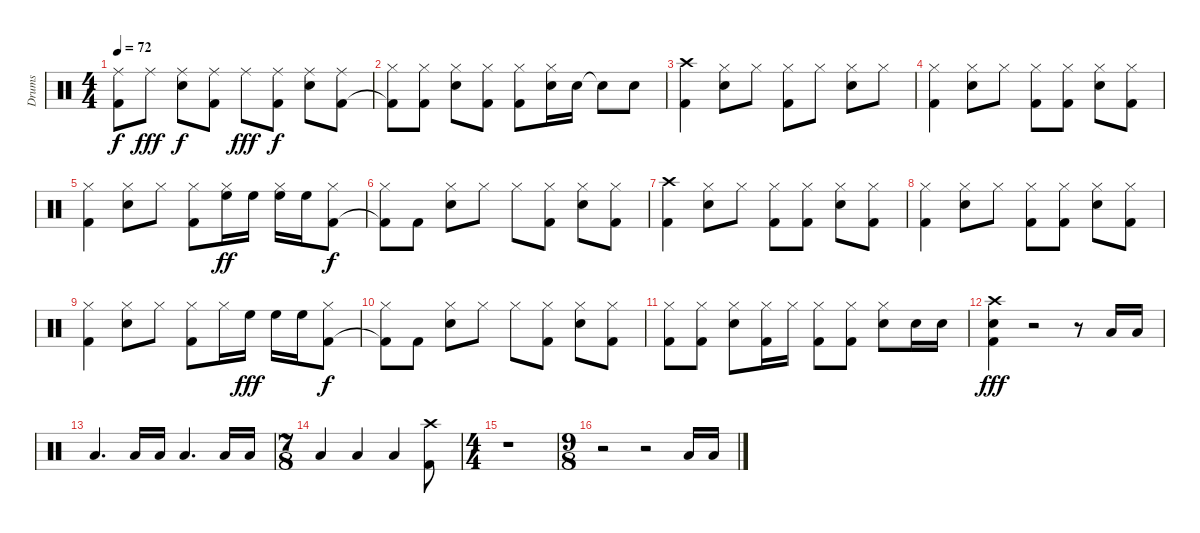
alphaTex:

\track ("Drums" "Drums") {instrument percussion}
\staff {score}
\articulation defaults
\ts (4 4)
\tempo 72
\clef neutral
\ks c
("Ride (middle)" "Kick (hit) 2").8{dy f} "Ride (middle)".8{dy fff} ("Ride (middle)" "Snare (hit) 2").8{dy f} ("Ride (middle)" "Kick (hit) 2").8 "Ride (middle)".8{dy fff} ("Ride (middle)" "Kick (hit) 2").8{dy f} ("Ride (middle)" "Snare (hit) 2").8 ("Ride (middle)" "Kick (hit) 2").8 |
("Hi-Hat (closed)" "Kick (hit) 2"{t}).8 ("Hi-Hat (closed)" "Kick (hit) 2").8 ("Hi-Hat (closed)" "Snare (hit) 2").8 ("Hi-Hat (closed)" "Kick (hit) 2").8 ("Hi-Hat (closed)" "Kick (hit) 2").8 ("Hi-Hat (closed)" "Snare (hit) 2").16 "Snare (hit) 2".16 "Snare (hit) 2"{t}.8 "Snare (hit) 2".8 |
("Crash high (hit)" "Kick (hit) 2").4 ("Hi-Hat (closed)" "Snare (hit) 2").8 "Hi-Hat (closed)".8 ("Hi-Hat (closed)" "Kick (hit) 2").8 "Hi-Hat (closed)".8 ("Hi-Hat (closed)" "Snare (hit) 2").8 "Hi-Hat (closed)".8 |
("Hi-Hat (closed)" "Kick (hit) 2").4 ("Hi-Hat (closed)" "Snare (hit) 2").8 "Hi-Hat (closed)".8 ("Hi-Hat (closed)" "Kick (hit) 2").8 ("Hi-Hat (closed)" "Kick (hit) 2").8 ("Hi-Hat (closed)" "Snare (hit) 2").8 ("Hi-Hat (closed)" "Kick (hit) 2").8 |
("Hi-Hat (closed)" "Kick (hit) 2").4 ("Hi-Hat (closed)" "Snare (hit) 2").8 "Hi-Hat (closed)".8 ("Hi-Hat (closed)" "Kick (hit) 2").8 ("Hi-Hat (closed)" "High Floor Tom (hit)").16{dy ff} "High Floor Tom (hit)".16 ("Hi-Hat (closed)" "High Floor Tom (hit)").16 "High Floor Tom (hit)".16 ("Hi-Hat (closed)" "Kick (hit) 2").8{dy f} |
("Hi-Hat (closed)" "Kick (hit) 2"{t}).8 "Kick (hit) 2".8 ("Hi-Hat (closed)" "Snare (hit) 2").8 "Hi-Hat (closed)".8 "Hi-Hat (closed)".8 ("Hi-Hat (closed)" "Kick (hit) 2").8 ("Hi-Hat (closed)" "Snare (hit) 2").8 ("Hi-Hat (closed)" "Kick (hit) 2").8 |
("Crash high (hit)" "Kick (hit) 2").4 ("Hi-Hat (closed)" "Snare (hit) 2").8 "Hi-Hat (closed)".8 ("Hi-Hat (closed)" "Kick (hit) 2").8 ("Hi-Hat (closed)" "Kick (hit) 2").8 ("Hi-Hat (closed)" "Snare (hit) 2").8 ("Hi-Hat (closed)" "Kick (hit) 2").8 |
("Hi-Hat (closed)" "Kick (hit) 2").4 ("Hi-Hat (closed)" "Snare (hit) 2").8 "Hi-Hat (closed)".8 ("Hi-Hat (closed)" "Kick (hit) 2").8 ("Hi-Hat (closed)" "Kick (hit) 2").8 ("Hi-Hat (closed)" "Snare (hit) 2").8 ("Hi-Hat (closed)" "Kick (hit) 2").8 |
("Hi-Hat (closed)" "Kick (hit) 2").4 ("Hi-Hat (closed)" "Snare (hit) 2").8 "Hi-Hat (closed)".8 ("Hi-Hat (closed)" "Kick (hit) 2").8 "Hi-Hat (closed)".16 "High Floor Tom (hit)".16{dy fff} "High Floor Tom (hit)".16 "High Floor Tom (hit)".16 ("Hi-Hat (closed)" "Kick (hit) 2").8{dy f} |
("Hi-Hat (closed)" "Kick (hit) 2"{t}).8 "Kick (hit) 2".8 ("Hi-Hat (closed)" "Snare (hit) 2").8 "Hi-Hat (closed)".8 "Hi-Hat (closed)".8 ("Hi-Hat (closed)" "Kick (hit) 2").8 ("Hi-Hat (closed)" "Snare (hit) 2").8 ("Hi-Hat (closed)" "Kick (hit) 2").8 |
("Hi-Hat (closed)" "Kick (hit) 2").8 ("Hi-Hat (closed)" "Kick (hit) 2").8 ("Hi-Hat (closed)" "Snare (hit) 2").8 ("Hi-Hat (closed)" "Kick (hit) 2").16 "Hi-Hat (closed)".16 ("Hi-Hat (closed)" "Kick (hit) 2").8 ("Hi-Hat (closed)" "Kick (hit) 2").8 ("Hi-Hat (closed)" "Snare (hit) 2").8 "Snare (hit) 2".16 "Snare (hit) 2".16 |
("Crash high (hit)" "Snare (hit) 2" "Kick (hit) 2").4{dy fff} r.2 r.8 "Low Floor Tom (hit)".16 "Low Floor Tom (hit)".16 |
"Low Floor Tom (hit)".4{d} "Low Floor Tom (hit)".16 "Low Floor Tom (hit)".16 "Low Floor Tom (hit)".4{d} "Low Floor Tom (hit)".16 "Low Floor Tom (hit)".16 |
\ts (7 8)
"Low Floor Tom (hit)".4 "Low Floor Tom (hit)".4 "Low Floor Tom (hit)".4 ("Crash high (hit)" "Kick (hit) 2").8 |
\ts (4 4)
r.1 |
\ts (9 8)
r.2 r.2 "Low Floor Tom (hit)".16 "Low Floor Tom (hit)".16
